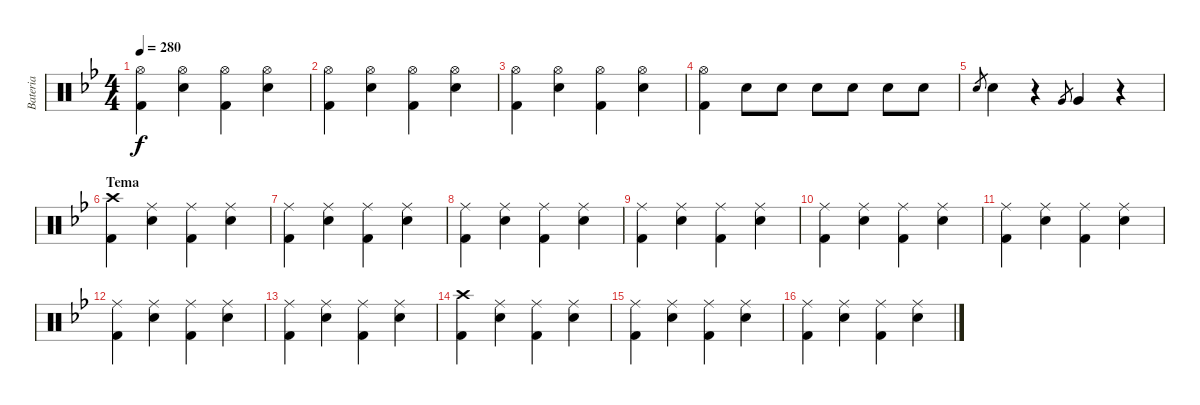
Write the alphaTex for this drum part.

\track ("Bateria" "Bateria") {instrument percussion}
\staff {score}
\articulation defaults
\ts (4 4)
\tempo 280
\clef neutral
\ks bb
("Hi-Hat (open)" "Kick (hit) 2").4{dy f} ("Hi-Hat (open)" "Electric Snare (hit)").4 ("Hi-Hat (open)" "Kick (hit) 2").4 ("Hi-Hat (open)" "Electric Snare (hit)").4 |
("Hi-Hat (open)" "Kick (hit) 2").4 ("Hi-Hat (open)" "Electric Snare (hit)").4 ("Hi-Hat (open)" "Kick (hit) 2").4 ("Hi-Hat (open)" "Electric Snare (hit)").4 |
("Hi-Hat (open)" "Kick (hit) 2").4 ("Hi-Hat (open)" "Electric Snare (hit)").4 ("Hi-Hat (open)" "Kick (hit) 2").4 ("Hi-Hat (open)" "Electric Snare (hit)").4 |
("Hi-Hat (open)" "Kick (hit) 2").4 "Electric Snare (hit)".8 "Electric Snare (hit)".8 "Electric Snare (hit)".8 "Electric Snare (hit)".8 "Electric Snare (hit)".8 "Electric Snare (hit)".8 |
"Electric Snare (hit)".8{gr} "Electric Snare (hit)".4 r.4 "Very Low Tom (hit)".8{gr} "Very Low Tom (hit)".4 r.4 |
\section ("" "Tema")
("Crash high (hit)" "Kick (hit) 2").4 ("Ride (middle)" "Electric Snare (hit)").4 ("Ride (middle)" "Kick (hit) 2").4 ("Ride (middle)" "Electric Snare (hit)").4 |
("Ride (middle)" "Kick (hit) 2").4 ("Ride (middle)" "Electric Snare (hit)").4 ("Ride (middle)" "Kick (hit) 2").4 ("Ride (middle)" "Electric Snare (hit)").4 |
("Ride (middle)" "Kick (hit) 2").4 ("Ride (middle)" "Electric Snare (hit)").4 ("Ride (middle)" "Kick (hit) 2").4 ("Ride (middle)" "Electric Snare (hit)").4 |
("Ride (middle)" "Kick (hit) 2").4 ("Ride (middle)" "Electric Snare (hit)").4 ("Ride (middle)" "Kick (hit) 2").4 ("Ride (middle)" "Electric Snare (hit)").4 |
("Ride (middle)" "Kick (hit) 2").4 ("Ride (middle)" "Electric Snare (hit)").4 ("Ride (middle)" "Kick (hit) 2").4 ("Ride (middle)" "Electric Snare (hit)").4 |
("Ride (middle)" "Kick (hit) 2").4 ("Ride (middle)" "Electric Snare (hit)").4 ("Ride (middle)" "Kick (hit) 2").4 ("Ride (middle)" "Electric Snare (hit)").4 |
("Ride (middle)" "Kick (hit) 2").4 ("Ride (middle)" "Electric Snare (hit)").4 ("Ride (middle)" "Kick (hit) 2").4 ("Ride (middle)" "Electric Snare (hit)").4 |
("Ride (middle)" "Kick (hit) 2").4 ("Ride (middle)" "Electric Snare (hit)").4 ("Ride (middle)" "Kick (hit) 2").4 ("Ride (middle)" "Electric Snare (hit)").4 |
("Crash high (hit)" "Kick (hit) 2").4 ("Ride (middle)" "Electric Snare (hit)").4 ("Ride (middle)" "Kick (hit) 2").4 ("Ride (middle)" "Electric Snare (hit)").4 |
("Ride (middle)" "Kick (hit) 2").4 ("Ride (middle)" "Electric Snare (hit)").4 ("Ride (middle)" "Kick (hit) 2").4 ("Ride (middle)" "Electric Snare (hit)").4 |
("Ride (middle)" "Kick (hit) 2").4 ("Ride (middle)" "Electric Snare (hit)").4 ("Ride (middle)" "Kick (hit) 2").4 ("Ride (middle)" "Electric Snare (hit)").4
